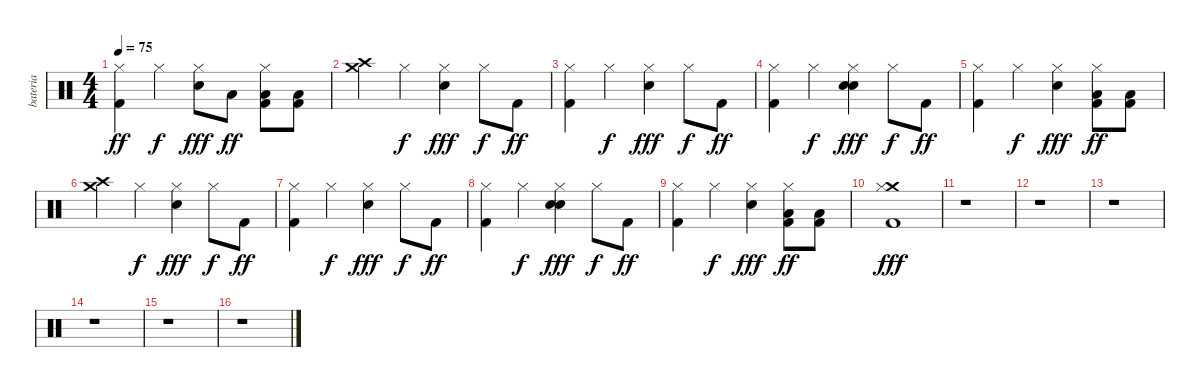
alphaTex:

\track ("bateria" "bateria") {instrument percussion}
\staff {score}
\articulation defaults
\ts (4 4)
\tempo 75
\clef neutral
\ks c
("Hi-Hat (closed)" "Kick (hit) 2").4{dy ff} "Hi-Hat (closed)".4{dy f} ("Hi-Hat (closed)" "Electric Snare (hit)").8{dy fff} "Low Floor Tom (hit)".8{dy ff} ("Hi-Hat (closed)" "Low Floor Tom (hit)" "Kick (hit) 2").8 ("Low Floor Tom (hit)" "Kick (hit) 2").8 |
("Crash high (hit)" "Crash medium (hit)").4 "Hi-Hat (closed)".4{dy f} ("Hi-Hat (closed)" "Electric Snare (hit)").4{dy fff} "Hi-Hat (closed)".8{dy f} "Kick (hit) 2".8{dy ff} |
("Hi-Hat (closed)" "Kick (hit) 2").4 "Hi-Hat (closed)".4{dy f} ("Hi-Hat (closed)" "Electric Snare (hit)").4{dy fff} "Hi-Hat (closed)".8{dy f} "Kick (hit) 2".8{dy ff} |
("Hi-Hat (closed)" "Kick (hit) 2").4 "Hi-Hat (closed)".4{dy f} ("Hi-Hat (closed)" "Electric Snare (hit)" "Electric Snare (hit)").4{bd 60 dy fff} "Hi-Hat (closed)".8{dy f} "Kick (hit) 2".8{dy ff} |
("Hi-Hat (closed)" "Kick (hit) 2").4 "Hi-Hat (closed)".4{dy f} ("Hi-Hat (closed)" "Electric Snare (hit)").4{dy fff} ("Hi-Hat (closed)" "Low Floor Tom (hit)" "Kick (hit) 2").8{dy ff} ("Low Floor Tom (hit)" "Kick (hit) 2").8 |
("Crash high (hit)" "Crash medium (hit)").4 "Hi-Hat (closed)".4{dy f} ("Hi-Hat (closed)" "Electric Snare (hit)").4{dy fff} "Hi-Hat (closed)".8{dy f} "Kick (hit) 2".8{dy ff} |
("Hi-Hat (closed)" "Kick (hit) 2").4 "Hi-Hat (closed)".4{dy f} ("Hi-Hat (closed)" "Electric Snare (hit)").4{dy fff} "Hi-Hat (closed)".8{dy f} "Kick (hit) 2".8{dy ff} |
("Hi-Hat (closed)" "Kick (hit) 2").4 "Hi-Hat (closed)".4{dy f} ("Hi-Hat (closed)" "Electric Snare (hit)" "Electric Snare (hit)").4{bd 60 dy fff} "Hi-Hat (closed)".8{dy f} "Kick (hit) 2".8{dy ff} |
("Hi-Hat (closed)" "Kick (hit) 2").4 "Hi-Hat (closed)".4{dy f} ("Hi-Hat (closed)" "Electric Snare (hit)").4{dy fff} ("Hi-Hat (closed)" "Low Floor Tom (hit)" "Kick (hit) 2").8{dy ff} ("Low Floor Tom (hit)" "Kick (hit) 2").8 |
("Crash medium (hit)" "Hi-Hat (closed)" "Kick (hit) 2").1{dy fff} |
r.1 |
r.1 |
r.1 |
r.1 |
r.1 |
r.1
